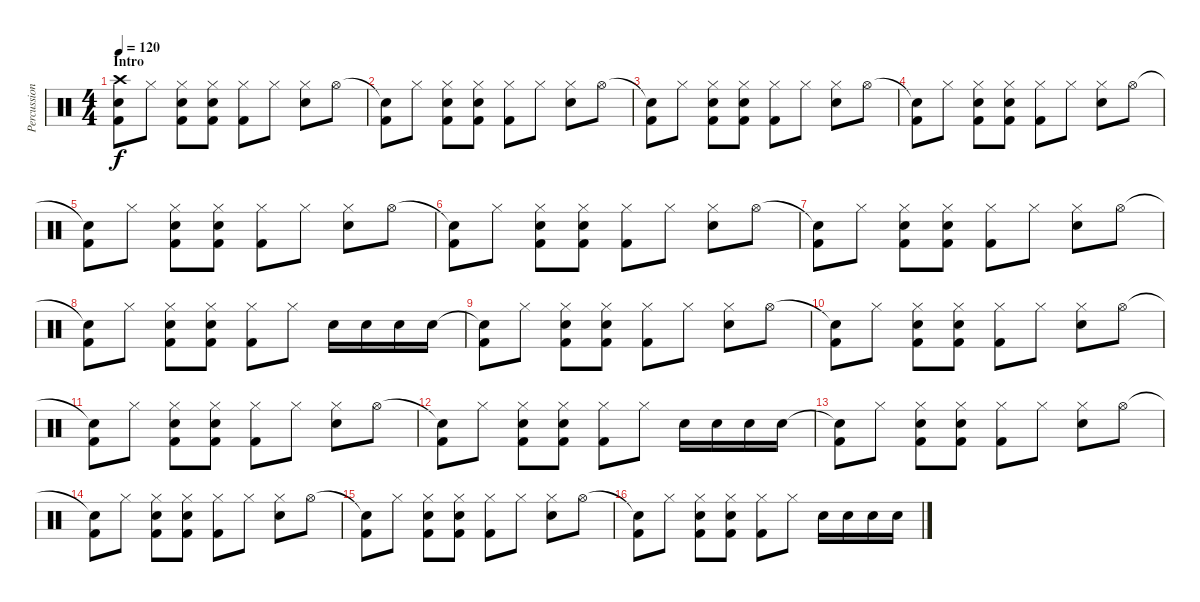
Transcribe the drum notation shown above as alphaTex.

\track ("Percussion" "Percussion") {instrument percussion}
\staff {score}
\articulation defaults
\ts (4 4)
\section ("" "Intro")
\tempo 120
\clef neutral
\ks c
("Crash high (hit)" "Kick (hit) 2" "Electric Snare (hit)").8{dy f} "Hi-Hat (closed)".8 ("Hi-Hat (closed)" "Kick (hit) 2" "Electric Snare (hit)").8 ("Hi-Hat (closed)" "Kick (hit) 2" "Electric Snare (hit)").8 ("Hi-Hat (closed)" "Kick (hit) 2").8 "Hi-Hat (closed)".8 ("Hi-Hat (closed)" "Electric Snare (hit)").8 "Hi-Hat (open)".8 |
("Snare (hit)"{t} "Kick (hit) 2").8 "Hi-Hat (closed)".8 ("Hi-Hat (closed)" "Kick (hit) 2" "Electric Snare (hit)").8 ("Hi-Hat (closed)" "Kick (hit) 2" "Electric Snare (hit)").8 ("Hi-Hat (closed)" "Kick (hit) 2").8 "Hi-Hat (closed)".8 ("Hi-Hat (closed)" "Electric Snare (hit)").8 "Hi-Hat (open)".8 |
("Snare (hit)"{t} "Kick (hit) 2").8 "Hi-Hat (closed)".8 ("Hi-Hat (closed)" "Kick (hit) 2" "Electric Snare (hit)").8 ("Hi-Hat (closed)" "Kick (hit) 2" "Electric Snare (hit)").8 ("Hi-Hat (closed)" "Kick (hit) 2").8 "Hi-Hat (closed)".8 ("Hi-Hat (closed)" "Electric Snare (hit)").8 "Hi-Hat (open)".8 |
("Snare (hit)"{t} "Kick (hit) 2").8 "Hi-Hat (closed)".8 ("Hi-Hat (closed)" "Kick (hit) 2" "Electric Snare (hit)").8 ("Hi-Hat (closed)" "Kick (hit) 2" "Electric Snare (hit)").8 ("Hi-Hat (closed)" "Kick (hit) 2").8 "Hi-Hat (closed)".8 ("Hi-Hat (closed)" "Electric Snare (hit)").8 "Hi-Hat (open)".8 |
("Snare (hit)"{t} "Kick (hit) 2").8 "Hi-Hat (closed)".8 ("Hi-Hat (closed)" "Kick (hit) 2" "Electric Snare (hit)").8 ("Hi-Hat (closed)" "Kick (hit) 2" "Electric Snare (hit)").8 ("Hi-Hat (closed)" "Kick (hit) 2").8 "Hi-Hat (closed)".8 ("Hi-Hat (closed)" "Electric Snare (hit)").8 "Hi-Hat (open)".8 |
("Snare (hit)"{t} "Kick (hit) 2").8 "Hi-Hat (closed)".8 ("Hi-Hat (closed)" "Kick (hit) 2" "Electric Snare (hit)").8 ("Hi-Hat (closed)" "Kick (hit) 2" "Electric Snare (hit)").8 ("Hi-Hat (closed)" "Kick (hit) 2").8 "Hi-Hat (closed)".8 ("Hi-Hat (closed)" "Electric Snare (hit)").8 "Hi-Hat (open)".8 |
("Snare (hit)"{t} "Kick (hit) 2").8 "Hi-Hat (closed)".8 ("Hi-Hat (closed)" "Kick (hit) 2" "Electric Snare (hit)").8 ("Hi-Hat (closed)" "Kick (hit) 2" "Electric Snare (hit)").8 ("Hi-Hat (closed)" "Kick (hit) 2").8 "Hi-Hat (closed)".8 ("Hi-Hat (closed)" "Electric Snare (hit)").8 "Hi-Hat (open)".8 |
("Snare (hit)"{t} "Kick (hit) 2").8 "Hi-Hat (closed)".8 ("Hi-Hat (closed)" "Kick (hit) 2" "Electric Snare (hit)").8 ("Hi-Hat (closed)" "Kick (hit) 2" "Electric Snare (hit)").8 ("Hi-Hat (closed)" "Kick (hit) 2").8 "Hi-Hat (closed)".8 "Electric Snare (hit)".16 "Electric Snare (hit)".16 "Electric Snare (hit)".16 "Electric Snare (hit)".16 |
("Snare (hit)"{t} "Kick (hit) 2").8 "Hi-Hat (closed)".8 ("Hi-Hat (closed)" "Kick (hit) 2" "Electric Snare (hit)").8 ("Hi-Hat (closed)" "Kick (hit) 2" "Electric Snare (hit)").8 ("Hi-Hat (closed)" "Kick (hit) 2").8 "Hi-Hat (closed)".8 ("Hi-Hat (closed)" "Electric Snare (hit)").8 "Hi-Hat (open)".8 |
("Snare (hit)"{t} "Kick (hit) 2").8 "Hi-Hat (closed)".8 ("Hi-Hat (closed)" "Kick (hit) 2" "Electric Snare (hit)").8 ("Hi-Hat (closed)" "Kick (hit) 2" "Electric Snare (hit)").8 ("Hi-Hat (closed)" "Kick (hit) 2").8 "Hi-Hat (closed)".8 ("Hi-Hat (closed)" "Electric Snare (hit)").8 "Hi-Hat (open)".8 |
("Snare (hit)"{t} "Kick (hit) 2").8 "Hi-Hat (closed)".8 ("Hi-Hat (closed)" "Kick (hit) 2" "Electric Snare (hit)").8 ("Hi-Hat (closed)" "Kick (hit) 2" "Electric Snare (hit)").8 ("Hi-Hat (closed)" "Kick (hit) 2").8 "Hi-Hat (closed)".8 ("Hi-Hat (closed)" "Electric Snare (hit)").8 "Hi-Hat (open)".8 |
("Snare (hit)"{t} "Kick (hit) 2").8 "Hi-Hat (closed)".8 ("Hi-Hat (closed)" "Kick (hit) 2" "Electric Snare (hit)").8 ("Hi-Hat (closed)" "Kick (hit) 2" "Electric Snare (hit)").8 ("Hi-Hat (closed)" "Kick (hit) 2").8 "Hi-Hat (closed)".8 "Electric Snare (hit)".16 "Electric Snare (hit)".16 "Electric Snare (hit)".16 "Electric Snare (hit)".16 |
("Snare (hit)"{t} "Kick (hit) 2").8 "Hi-Hat (closed)".8 ("Hi-Hat (closed)" "Kick (hit) 2" "Electric Snare (hit)").8 ("Hi-Hat (closed)" "Kick (hit) 2" "Electric Snare (hit)").8 ("Hi-Hat (closed)" "Kick (hit) 2").8 "Hi-Hat (closed)".8 ("Hi-Hat (closed)" "Electric Snare (hit)").8 "Hi-Hat (open)".8 |
("Snare (hit)"{t} "Kick (hit) 2").8 "Hi-Hat (closed)".8 ("Hi-Hat (closed)" "Kick (hit) 2" "Electric Snare (hit)").8 ("Hi-Hat (closed)" "Kick (hit) 2" "Electric Snare (hit)").8 ("Hi-Hat (closed)" "Kick (hit) 2").8 "Hi-Hat (closed)".8 ("Hi-Hat (closed)" "Electric Snare (hit)").8 "Hi-Hat (open)".8 |
("Snare (hit)"{t} "Kick (hit) 2").8 "Hi-Hat (closed)".8 ("Hi-Hat (closed)" "Kick (hit) 2" "Electric Snare (hit)").8 ("Hi-Hat (closed)" "Kick (hit) 2" "Electric Snare (hit)").8 ("Hi-Hat (closed)" "Kick (hit) 2").8 "Hi-Hat (closed)".8 ("Hi-Hat (closed)" "Electric Snare (hit)").8 "Hi-Hat (open)".8 |
("Snare (hit)"{t} "Kick (hit) 2").8 "Hi-Hat (closed)".8 ("Hi-Hat (closed)" "Kick (hit) 2" "Electric Snare (hit)").8 ("Hi-Hat (closed)" "Kick (hit) 2" "Electric Snare (hit)").8 ("Hi-Hat (closed)" "Kick (hit) 2").8 "Hi-Hat (closed)".8 "Electric Snare (hit)".16 "Electric Snare (hit)".16 "Electric Snare (hit)".16 "Electric Snare (hit)".16
